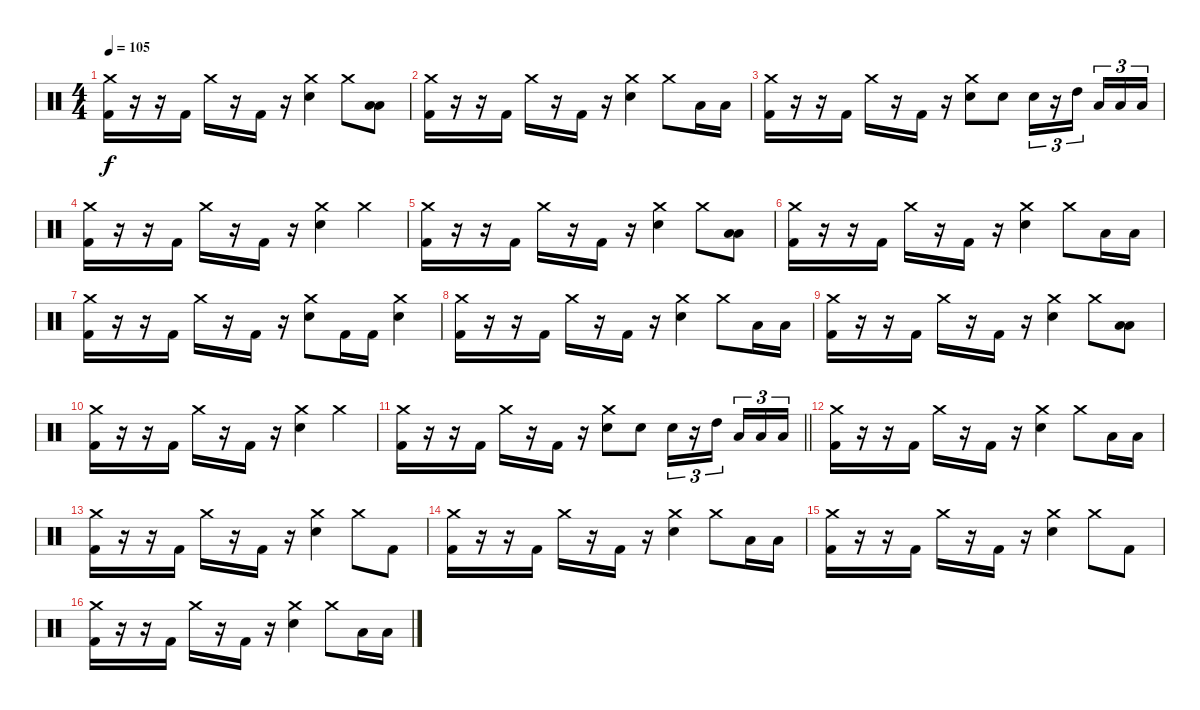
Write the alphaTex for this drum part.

\track "" {instrument percussion}
\staff {score}
\articulation defaults
\ts (4 4)
\tempo 105
\clef neutral
\ks c
("Crash medium (hit)" "Kick (hit) 2").16{dy f} r.16 r.16 "Kick (hit) 2".16 "Crash medium (hit)".16 r.16 "Kick (hit) 2".16 r.16 ("Crash medium (hit)" "Snare (hit) 2").4 "Crash medium (hit)".8 ("Low Tom (hit)" "Low Floor Tom (hit)").8 |
("Crash medium (hit)" "Kick (hit) 2").16 r.16 r.16 "Kick (hit) 2".16 "Crash medium (hit)".16 r.16 "Kick (hit) 2".16 r.16 ("Crash medium (hit)" "Snare (hit) 2").4 "Crash medium (hit)".8 "Low Tom (hit)".16 "Low Tom (hit)".16 |
("Crash medium (hit)" "Kick (hit) 2").16 r.16 r.16 "Kick (hit) 2".16 "Crash medium (hit)".16 r.16 "Kick (hit) 2".16 r.16 ("Crash medium (hit)" "Snare (hit) 2").8 "Snare (hit) 2".8 "Snare (hit) 2".16{tu (3 2)} r.16{tu (3 2)} "High Tom (hit)".16{tu (3 2) beam splitsecondary} "Low Tom (hit)".16{tu (3 2)} "Low Floor Tom (hit)".16{tu (3 2)} "Low Floor Tom (hit)".16{tu (3 2)} |
("Crash medium (hit)" "Kick (hit) 2").16 r.16 r.16 "Kick (hit) 2".16 "Crash medium (hit)".16 r.16 "Kick (hit) 2".16 r.16 ("Crash medium (hit)" "Snare (hit) 2").4 "Crash medium (hit)".4 |
("Crash medium (hit)" "Kick (hit) 2").16 r.16 r.16 "Kick (hit) 2".16 "Crash medium (hit)".16 r.16 "Kick (hit) 2".16 r.16 ("Crash medium (hit)" "Snare (hit) 2").4 "Crash medium (hit)".8 ("Low Tom (hit)" "Low Floor Tom (hit)").8 |
("Crash medium (hit)" "Kick (hit) 2").16 r.16 r.16 "Kick (hit) 2".16 "Crash medium (hit)".16 r.16 "Kick (hit) 2".16 r.16 ("Crash medium (hit)" "Snare (hit) 2").4 "Crash medium (hit)".8 "Low Tom (hit)".16 "Low Tom (hit)".16 |
("Crash medium (hit)" "Kick (hit) 2").16 r.16 r.16 "Kick (hit) 2".16 "Crash medium (hit)".16 r.16 "Kick (hit) 2".16 r.16 ("Crash medium (hit)" "Snare (hit) 2").8 "Kick (hit) 2".16 "Kick (hit) 2".16 ("Crash medium (hit)" "Snare (hit) 2").4 |
("Crash medium (hit)" "Kick (hit) 2").16 r.16 r.16 "Kick (hit) 2".16 "Crash medium (hit)".16 r.16 "Kick (hit) 2".16 r.16 ("Crash medium (hit)" "Snare (hit) 2").4 "Crash medium (hit)".8 "Low Tom (hit)".16 "Low Tom (hit)".16 |
("Crash medium (hit)" "Kick (hit) 2").16 r.16 r.16 "Kick (hit) 2".16 "Crash medium (hit)".16 r.16 "Kick (hit) 2".16 r.16 ("Crash medium (hit)" "Snare (hit) 2").4 "Crash medium (hit)".8 ("Low Tom (hit)" "Low Floor Tom (hit)").8 |
("Crash medium (hit)" "Kick (hit) 2").16 r.16 r.16 "Kick (hit) 2".16 "Crash medium (hit)".16 r.16 "Kick (hit) 2".16 r.16 ("Crash medium (hit)" "Snare (hit) 2").4 "Crash medium (hit)".4 |
\barLineRight lightlight
("Crash medium (hit)" "Kick (hit) 2").16 r.16 r.16 "Kick (hit) 2".16 "Crash medium (hit)".16 r.16 "Kick (hit) 2".16 r.16 ("Crash medium (hit)" "Snare (hit) 2").8 "Snare (hit) 2".8 "Snare (hit) 2".16{tu (3 2)} r.16{tu (3 2)} "High Tom (hit)".16{tu (3 2) beam splitsecondary} "Low Tom (hit)".16{tu (3 2)} "Low Floor Tom (hit)".16{tu (3 2)} "Low Floor Tom (hit)".16{tu (3 2)} |
\section ("" "")
("Crash medium (hit)" "Kick (hit) 2").16 r.16 r.16 "Kick (hit) 2".16 "Crash medium (hit)".16 r.16 "Kick (hit) 2".16 r.16 ("Crash medium (hit)" "Snare (hit) 2").4 "Crash medium (hit)".8 "Low Tom (hit)".16 "Low Tom (hit)".16 |
("Crash medium (hit)" "Kick (hit) 2").16 r.16 r.16 "Kick (hit) 2".16 "Crash medium (hit)".16 r.16 "Kick (hit) 2".16 r.16 ("Crash medium (hit)" "Snare (hit) 2").4 "Crash medium (hit)".8 "Kick (hit) 2".8 |
("Crash medium (hit)" "Kick (hit) 2").16 r.16 r.16 "Kick (hit) 2".16 "Crash medium (hit)".16 r.16 "Kick (hit) 2".16 r.16 ("Crash medium (hit)" "Snare (hit) 2").4 "Crash medium (hit)".8 "Low Tom (hit)".16 "Low Tom (hit)".16 |
("Crash medium (hit)" "Kick (hit) 2").16 r.16 r.16 "Kick (hit) 2".16 "Crash medium (hit)".16 r.16 "Kick (hit) 2".16 r.16 ("Crash medium (hit)" "Snare (hit) 2").4 "Crash medium (hit)".8 "Kick (hit) 2".8 |
("Crash medium (hit)" "Kick (hit) 2").16 r.16 r.16 "Kick (hit) 2".16 "Crash medium (hit)".16 r.16 "Kick (hit) 2".16 r.16 ("Crash medium (hit)" "Snare (hit) 2").4 "Crash medium (hit)".8 "Low Floor Tom (hit)".16 "Low Tom (hit)".16
